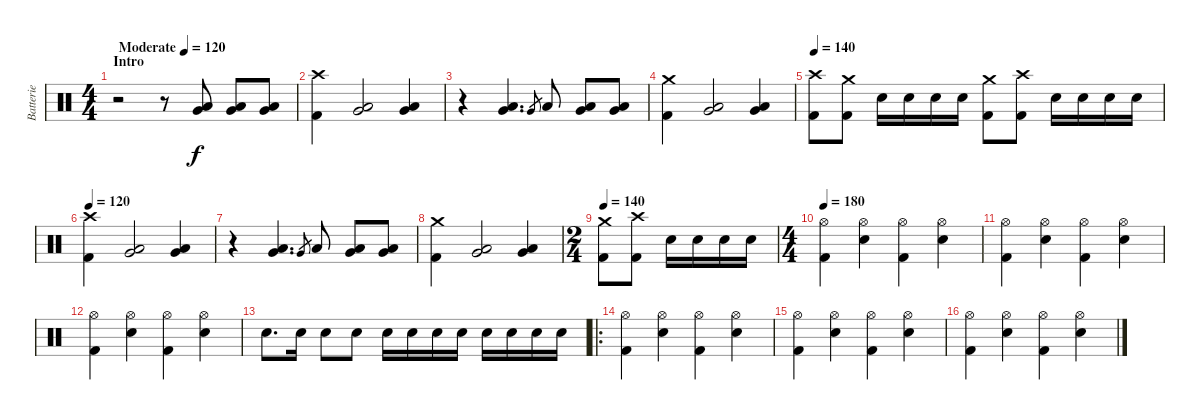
\track ("Batterie" "Batterie") {instrument percussion}
\staff {score}
\articulation defaults
\ts (4 4)
\section ("" "Intro")
\tempo (120 "Moderate")
\clef neutral
\ks c
r.2{dy f} r.8 ("Low Tom (hit)" "Very Low Tom (hit)").8 ("Low Tom (hit)" "Very Low Tom (hit)").8 ("Low Tom (hit)" "Very Low Tom (hit)").8 |
("Crash high (hit)" "Kick (hit) 2").4 ("Low Tom (hit)" "Very Low Tom (hit)").2 ("Low Tom (hit)" "Very Low Tom (hit)").4 |
r.4 ("Low Tom (hit)" "Very Low Tom (hit)").4{d} "Very Low Tom (hit)".8{gr} "Low Tom (hit)".8 ("Low Tom (hit)" "Very Low Tom (hit)").8 ("Low Tom (hit)" "Very Low Tom (hit)").8 |
("Crash medium (hit)" "Kick (hit) 2").4 ("Low Tom (hit)" "Very Low Tom (hit)").2 ("Low Tom (hit)" "Very Low Tom (hit)").4 |
\tempo 140
("Crash high (hit)" "Kick (hit) 2").8 ("Crash medium (hit)" "Kick (hit) 2").8 "Electric Snare (hit)".16 "Electric Snare (hit)".16 "Electric Snare (hit)".16 "Electric Snare (hit)".16 ("Crash medium (hit)" "Kick (hit) 2").8 ("Crash high (hit)" "Kick (hit) 2").8 "Electric Snare (hit)".16 "Electric Snare (hit)".16 "Electric Snare (hit)".16 "Electric Snare (hit)".16 |
\tempo 120
("Crash high (hit)" "Kick (hit) 2").4 ("Low Tom (hit)" "Very Low Tom (hit)").2 ("Low Tom (hit)" "Very Low Tom (hit)").4 |
r.4 ("Low Tom (hit)" "Very Low Tom (hit)").4{d} "Very Low Tom (hit)".8{gr} "Low Tom (hit)".8 ("Low Tom (hit)" "Very Low Tom (hit)").8 ("Low Tom (hit)" "Very Low Tom (hit)").8 |
("Crash medium (hit)" "Kick (hit) 2").4 ("Low Tom (hit)" "Very Low Tom (hit)").2 ("Low Tom (hit)" "Very Low Tom (hit)").4 |
\ts (2 4)
\tempo 140
("Crash medium (hit)" "Kick (hit) 2").8 ("Crash high (hit)" "Kick (hit) 2").8 "Electric Snare (hit)".16 "Electric Snare (hit)".16 "Electric Snare (hit)".16 "Electric Snare (hit)".16 |
\ts (4 4)
\tempo 180
("Hi-Hat (open)" "Kick (hit) 2").4 ("Hi-Hat (open)" "Electric Snare (hit)").4 ("Hi-Hat (open)" "Kick (hit) 2").4 ("Hi-Hat (open)" "Electric Snare (hit)").4 |
("Hi-Hat (open)" "Kick (hit) 2").4 ("Hi-Hat (open)" "Electric Snare (hit)").4 ("Hi-Hat (open)" "Kick (hit) 2").4 ("Hi-Hat (open)" "Electric Snare (hit)").4 |
("Hi-Hat (open)" "Kick (hit) 2").4 ("Hi-Hat (open)" "Electric Snare (hit)").4 ("Hi-Hat (open)" "Kick (hit) 2").4 ("Hi-Hat (open)" "Electric Snare (hit)").4 |
"Electric Snare (hit)".8{d} "Electric Snare (hit)".16 "Electric Snare (hit)".8 "Electric Snare (hit)".8 "Electric Snare (hit)".16 "Electric Snare (hit)".16 "Electric Snare (hit)".16 "Electric Snare (hit)".16 "Electric Snare (hit)".16 "Electric Snare (hit)".16 "Electric Snare (hit)".16 "Electric Snare (hit)".16 |
\ro
("Hi-Hat (open)" "Kick (hit) 2").4 ("Hi-Hat (open)" "Electric Snare (hit)").4 ("Hi-Hat (open)" "Kick (hit) 2").4 ("Hi-Hat (open)" "Electric Snare (hit)").4 |
("Hi-Hat (open)" "Kick (hit) 2").4 ("Hi-Hat (open)" "Electric Snare (hit)").4 ("Hi-Hat (open)" "Kick (hit) 2").4 ("Hi-Hat (open)" "Electric Snare (hit)").4 |
("Hi-Hat (open)" "Kick (hit) 2").4 ("Hi-Hat (open)" "Electric Snare (hit)").4 ("Hi-Hat (open)" "Kick (hit) 2").4 ("Hi-Hat (open)" "Electric Snare (hit)").4
